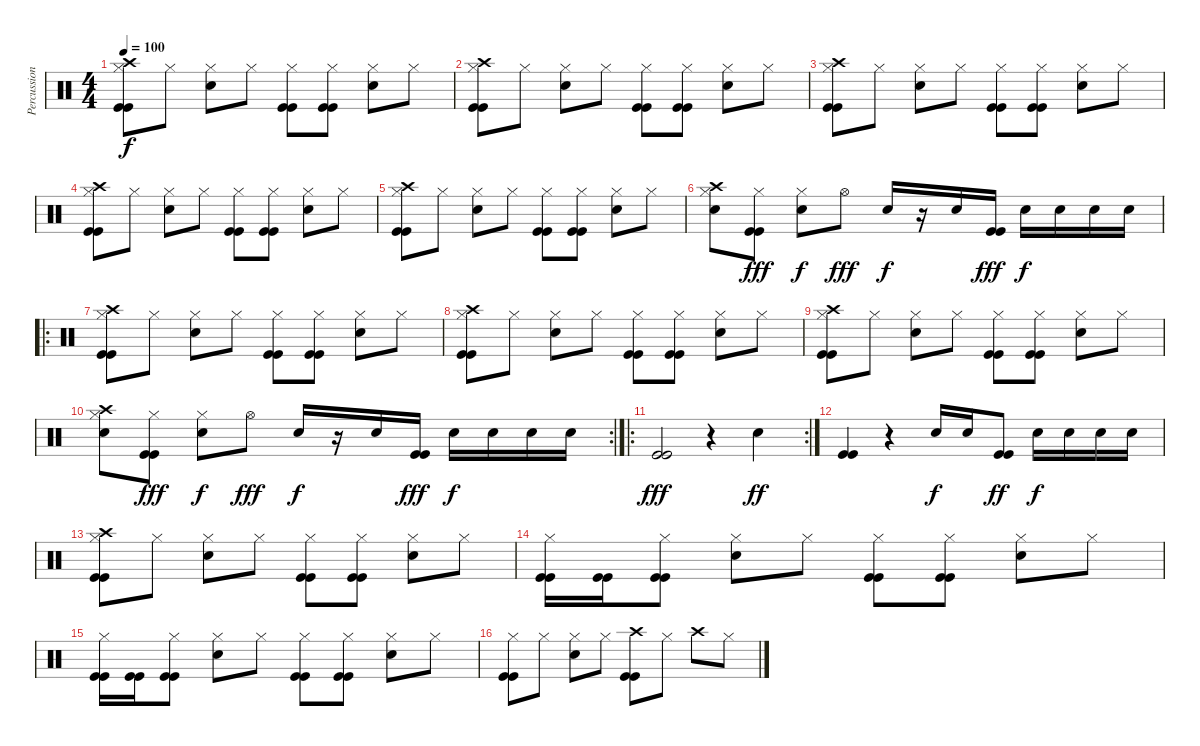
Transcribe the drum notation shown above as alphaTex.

\track ("Percussion" "Percussion") {instrument percussion}
\staff {score}
\articulation defaults
\ts (4 4)
\tempo 100
\clef neutral
\ks c
("Kick (hit)" "Kick (hit)" "Hi-Hat (closed)" "Crash high (hit)").8{dy f} "Hi-Hat (closed)".8 ("Snare (hit) 2" "Hi-Hat (closed)").8 "Hi-Hat (closed)".8 ("Kick (hit)" "Kick (hit)" "Hi-Hat (closed)").8 ("Kick (hit)" "Kick (hit)" "Hi-Hat (closed)").8 ("Snare (hit) 2" "Hi-Hat (closed)").8 "Hi-Hat (closed)".8 |
("Kick (hit)" "Kick (hit)" "Hi-Hat (closed)" "Crash high (hit)").8 "Hi-Hat (closed)".8 ("Snare (hit) 2" "Hi-Hat (closed)").8 "Hi-Hat (closed)".8 ("Kick (hit)" "Kick (hit)" "Hi-Hat (closed)").8 ("Kick (hit)" "Kick (hit)" "Hi-Hat (closed)").8 ("Snare (hit) 2" "Hi-Hat (closed)").8 "Hi-Hat (closed)".8 |
("Kick (hit)" "Kick (hit)" "Hi-Hat (closed)" "Crash high (hit)").8 "Hi-Hat (closed)".8 ("Snare (hit) 2" "Hi-Hat (closed)").8 "Hi-Hat (closed)".8 ("Kick (hit)" "Kick (hit)" "Hi-Hat (closed)").8 ("Kick (hit)" "Kick (hit)" "Hi-Hat (closed)").8 ("Snare (hit) 2" "Hi-Hat (closed)").8 "Hi-Hat (closed)".8 |
("Kick (hit)" "Kick (hit)" "Hi-Hat (closed)" "Crash high (hit)").8 "Hi-Hat (closed)".8 ("Snare (hit) 2" "Hi-Hat (closed)").8 "Hi-Hat (closed)".8 ("Kick (hit)" "Kick (hit)" "Hi-Hat (closed)").8 ("Kick (hit)" "Kick (hit)" "Hi-Hat (closed)").8 ("Snare (hit) 2" "Hi-Hat (closed)").8 "Hi-Hat (closed)".8 |
("Kick (hit)" "Kick (hit)" "Hi-Hat (closed)" "Crash high (hit)").8 "Hi-Hat (closed)".8 ("Snare (hit) 2" "Hi-Hat (closed)").8 "Hi-Hat (closed)".8 ("Kick (hit)" "Kick (hit)" "Hi-Hat (closed)").8 ("Kick (hit)" "Kick (hit)" "Hi-Hat (closed)").8 ("Snare (hit) 2" "Hi-Hat (closed)").8 "Hi-Hat (closed)".8 |
("Snare (hit) 2" "Hi-Hat (closed)" "Crash high (hit)").8 ("Kick (hit)" "Kick (hit)" "Hi-Hat (closed)").8{dy fff} ("Snare (hit) 2" "Hi-Hat (closed)").8{dy f} "Hi-Hat (open)".8{dy fff} "Snare (hit) 2".16{dy f} r.16 "Snare (hit) 2".16 ("Kick (hit)" "Kick (hit)").16{dy fff} "Snare (hit) 2".16{dy f} "Snare (hit) 2".16 "Snare (hit) 2".16 "Snare (hit) 2".16 |
\ro
("Kick (hit)" "Kick (hit)" "Hi-Hat (closed)" "Crash high (hit)").8 "Hi-Hat (closed)".8 ("Snare (hit) 2" "Hi-Hat (closed)").8 "Hi-Hat (closed)".8 ("Kick (hit)" "Kick (hit)" "Hi-Hat (closed)").8 ("Kick (hit)" "Kick (hit)" "Hi-Hat (closed)").8 ("Snare (hit) 2" "Hi-Hat (closed)").8 "Hi-Hat (closed)".8 |
("Kick (hit)" "Kick (hit)" "Hi-Hat (closed)" "Crash high (hit)").8 "Hi-Hat (closed)".8 ("Snare (hit) 2" "Hi-Hat (closed)").8 "Hi-Hat (closed)".8 ("Kick (hit)" "Kick (hit)" "Hi-Hat (closed)").8 ("Kick (hit)" "Kick (hit)" "Hi-Hat (closed)").8 ("Snare (hit) 2" "Hi-Hat (closed)").8 "Hi-Hat (closed)".8 |
("Kick (hit)" "Kick (hit)" "Hi-Hat (closed)" "Crash high (hit)").8 "Hi-Hat (closed)".8 ("Snare (hit) 2" "Hi-Hat (closed)").8 "Hi-Hat (closed)".8 ("Kick (hit)" "Kick (hit)" "Hi-Hat (closed)").8 ("Kick (hit)" "Kick (hit)" "Hi-Hat (closed)").8 ("Snare (hit) 2" "Hi-Hat (closed)").8 "Hi-Hat (closed)".8 |
\rc 2
("Snare (hit) 2" "Hi-Hat (closed)" "Crash high (hit)").8 ("Kick (hit)" "Kick (hit)" "Hi-Hat (closed)").8{dy fff} ("Snare (hit) 2" "Hi-Hat (closed)").8{dy f} "Hi-Hat (open)".8{dy fff} "Snare (hit) 2".16{dy f} r.16 "Snare (hit) 2".16 ("Kick (hit)" "Kick (hit)").16{dy fff} "Snare (hit) 2".16{dy f} "Snare (hit) 2".16 "Snare (hit) 2".16 "Snare (hit) 2".16 |
\ro
\rc 2
("Kick (hit)" "Kick (hit)").2{dy fff} r.4 "Snare (hit) 2".4{dy ff} |
("Kick (hit)" "Kick (hit)").4 r.4 "Snare (hit) 2".16{dy f} "Snare (hit) 2".16 ("Kick (hit)" "Kick (hit)").8{dy ff} "Snare (hit) 2".16{dy f} "Snare (hit) 2".16 "Snare (hit) 2".16 "Snare (hit) 2".16 |
("Kick (hit)" "Kick (hit)" "Hi-Hat (closed)" "Crash high (hit)").8 "Hi-Hat (closed)".8 ("Snare (hit) 2" "Hi-Hat (closed)").8 "Hi-Hat (closed)".8 ("Kick (hit)" "Kick (hit)" "Hi-Hat (closed)").8 ("Kick (hit)" "Kick (hit)" "Hi-Hat (closed)").8 ("Snare (hit) 2" "Hi-Hat (closed)").8 "Hi-Hat (closed)".8 |
("Kick (hit)" "Kick (hit)" "Hi-Hat (closed)").16 ("Kick (hit)" "Kick (hit)").16 ("Kick (hit)" "Kick (hit)" "Hi-Hat (closed)").8 ("Snare (hit) 2" "Hi-Hat (closed)").8 "Hi-Hat (closed)".8 ("Kick (hit)" "Kick (hit)" "Hi-Hat (closed)").8 ("Kick (hit)" "Kick (hit)" "Hi-Hat (closed)").8 ("Snare (hit) 2" "Hi-Hat (closed)").8 "Hi-Hat (closed)".8 |
("Kick (hit)" "Kick (hit)" "Hi-Hat (closed)").16 ("Kick (hit)" "Kick (hit)").16 ("Kick (hit)" "Kick (hit)" "Hi-Hat (closed)").8 ("Snare (hit) 2" "Hi-Hat (closed)").8 "Hi-Hat (closed)".8 ("Kick (hit)" "Kick (hit)" "Hi-Hat (closed)").8 ("Kick (hit)" "Kick (hit)" "Hi-Hat (closed)").8 ("Snare (hit) 2" "Hi-Hat (closed)").8 "Hi-Hat (closed)".8 |
("Kick (hit)" "Kick (hit)" "Hi-Hat (closed)").8 "Hi-Hat (closed)".8 ("Snare (hit) 2" "Hi-Hat (closed)").8 "Hi-Hat (closed)".8 ("Kick (hit)" "Kick (hit)" "Crash high (hit)").8 "Hi-Hat (closed)".8 "Crash high (hit)".8 "Hi-Hat (closed)".8
